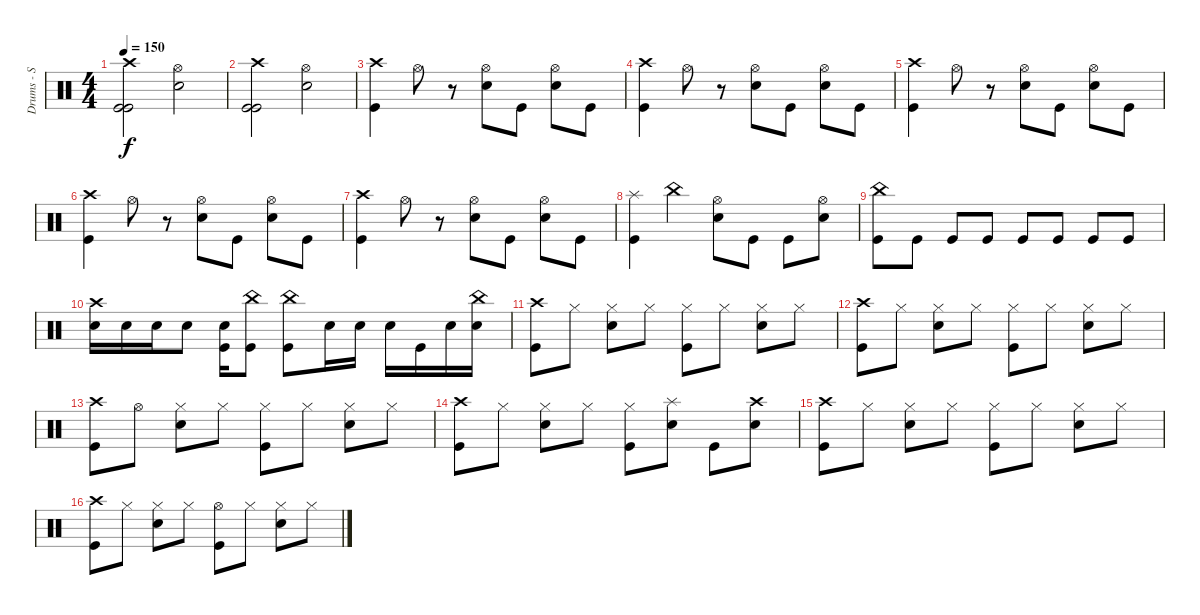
\track ("Drums - S Man" "Drums - S ") {instrument percussion}
\staff {score}
\articulation defaults
\ts (4 4)
\tempo 150
\clef neutral
\ks c
("Crash high (hit)" "Kick (hit)" "Kick (hit)").2{dy f} ("Hi-Hat (open)" "Electric Snare (hit)").2 |
("Crash high (hit)" "Kick (hit)" "Kick (hit)").2 ("Hi-Hat (open)" "Electric Snare (hit)").2 |
("Crash high (hit)" "Kick (hit)").4 "Hi-Hat (open)".8 r.8 ("Hi-Hat (open)" "Electric Snare (hit)").8 "Kick (hit)".8 ("Hi-Hat (open)" "Electric Snare (hit)").8 "Kick (hit)".8 |
("Crash high (hit)" "Kick (hit)").4 "Hi-Hat (open)".8 r.8 ("Hi-Hat (open)" "Electric Snare (hit)").8 "Kick (hit)".8 ("Hi-Hat (open)" "Electric Snare (hit)").8 "Kick (hit)".8 |
("Crash high (hit)" "Kick (hit)").4 "Hi-Hat (open)".8 r.8 ("Hi-Hat (open)" "Electric Snare (hit)").8 "Kick (hit)".8 ("Hi-Hat (open)" "Electric Snare (hit)").8 "Kick (hit)".8 |
("Crash high (hit)" "Kick (hit)").4 "Hi-Hat (open)".8 r.8 ("Hi-Hat (open)" "Electric Snare (hit)").8 "Kick (hit)".8 ("Hi-Hat (open)" "Electric Snare (hit)").8 "Kick (hit)".8 |
("Crash high (hit)" "Kick (hit)").4 "Hi-Hat (open)".8 r.8 ("Hi-Hat (open)" "Electric Snare (hit)").8 "Kick (hit)".8 ("Hi-Hat (open)" "Electric Snare (hit)").8 "Kick (hit)".8 |
("Splash (hit)" "Kick (hit)").4 "China (hit)".4 ("Hi-Hat (open)" "Electric Snare (hit)").8 "Kick (hit)".8 "Kick (hit)".8 ("Hi-Hat (open)" "Electric Snare (hit)").8 |
("China (hit)" "Kick (hit)").8 "Kick (hit)".8 "Kick (hit)".8 "Kick (hit)".8 "Kick (hit)".8 "Kick (hit)".8 "Kick (hit)".8 "Kick (hit)".8 |
("Crash high (hit)" "Electric Snare (hit)").16 "Electric Snare (hit)".16 "Electric Snare (hit)".16 "Electric Snare (hit)".8 ("Electric Snare (hit)" "Kick (hit)").16 ("China (hit)" "Kick (hit)").8 ("China (hit)" "Kick (hit)").8 "Electric Snare (hit)".16 "Electric Snare (hit)".16 "Electric Snare (hit)".16 "Kick (hit)".16 "Electric Snare (hit)".16 ("China (hit)" "Electric Snare (hit)").16 |
("Crash high (hit)" "Kick (hit)").8 "Hi-Hat (closed)".8 ("Hi-Hat (closed)" "Electric Snare (hit)").8 "Hi-Hat (closed)".8 ("Hi-Hat (closed)" "Kick (hit)").8 "Hi-Hat (closed)".8 ("Hi-Hat (closed)" "Electric Snare (hit)").8 "Hi-Hat (closed)".8 |
("Crash high (hit)" "Kick (hit)").8 "Hi-Hat (closed)".8 ("Hi-Hat (closed)" "Electric Snare (hit)").8 "Hi-Hat (closed)".8 ("Hi-Hat (closed)" "Kick (hit)").8 "Hi-Hat (closed)".8 ("Hi-Hat (closed)" "Electric Snare (hit)").8 "Hi-Hat (closed)".8 |
("Crash high (hit)" "Kick (hit)").8 "Hi-Hat (open)".8 ("Hi-Hat (closed)" "Electric Snare (hit)").8 "Hi-Hat (closed)".8 ("Hi-Hat (closed)" "Kick (hit)").8 "Hi-Hat (closed)".8 ("Hi-Hat (closed)" "Electric Snare (hit)").8 "Hi-Hat (closed)".8 |
("Crash high (hit)" "Kick (hit)").8 "Hi-Hat (closed)".8 ("Hi-Hat (closed)" "Electric Snare (hit)").8 "Hi-Hat (closed)".8 ("Hi-Hat (closed)" "Kick (hit)").8 ("Splash (hit)" "Electric Snare (hit)").8 "Kick (hit)".8 ("Crash high (hit)" "Electric Snare (hit)").8 |
("Crash high (hit)" "Kick (hit)").8 "Hi-Hat (closed)".8 ("Hi-Hat (closed)" "Electric Snare (hit)").8 "Hi-Hat (closed)".8 ("Hi-Hat (closed)" "Kick (hit)").8 "Hi-Hat (closed)".8 ("Hi-Hat (closed)" "Electric Snare (hit)").8 "Hi-Hat (closed)".8 |
("Crash high (hit)" "Kick (hit)").8 "Hi-Hat (closed)".8 ("Hi-Hat (closed)" "Electric Snare (hit)").8 "Hi-Hat (closed)".8 ("Hi-Hat (open)" "Kick (hit)").8 "Hi-Hat (closed)".8 ("Hi-Hat (closed)" "Electric Snare (hit)").8 "Hi-Hat (closed)".8
